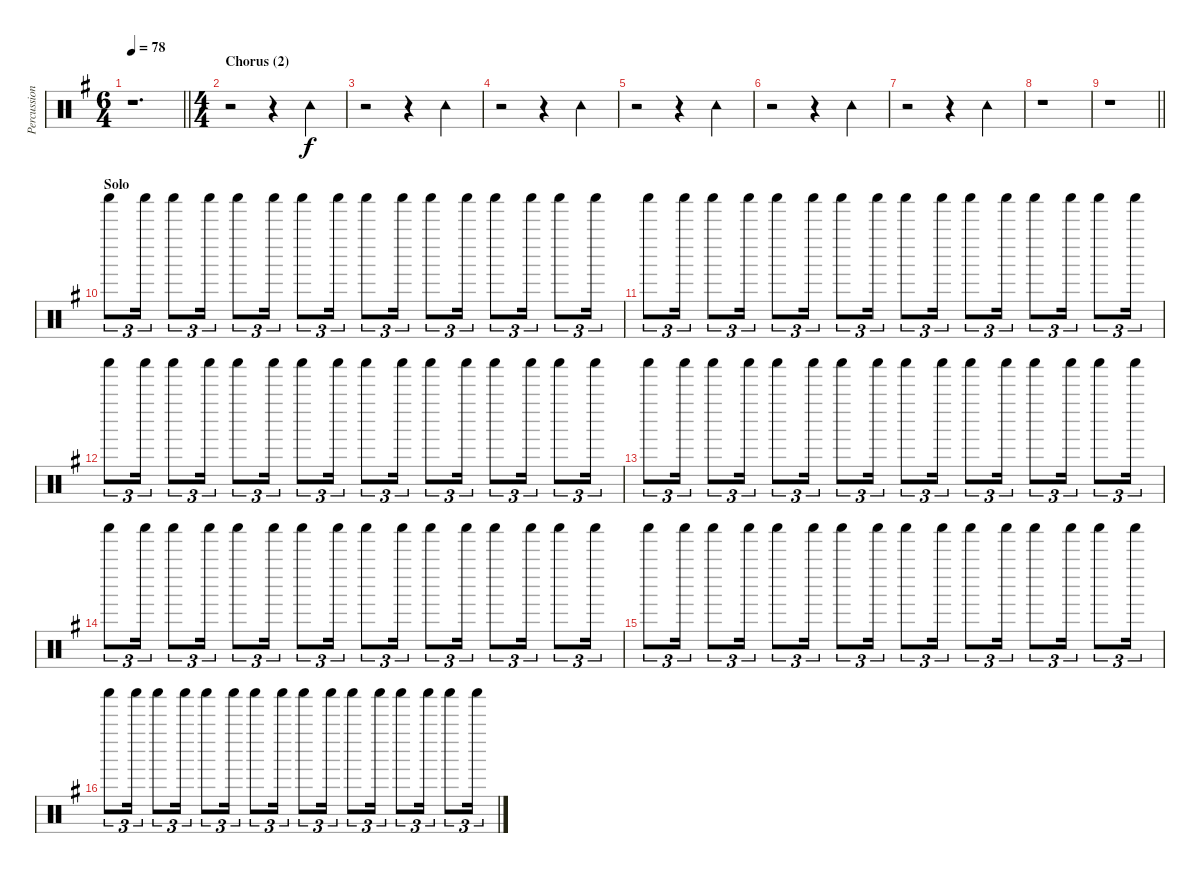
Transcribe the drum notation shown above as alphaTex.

\track ("Percussion" "Percussion") {instrument percussion}
\staff {score}
\articulation defaults
\ts (6 4)
\tempo 78
\clef neutral
\barLineRight lightlight
\ks g
r.1{d dy f} |
\ts (4 4)
\section ("" "Chorus (2)")
r.2 r.4 "Tambourine (hit)".4 |
r.2 r.4 "Tambourine (hit)".4 |
r.2 r.4 "Tambourine (hit)".4 |
r.2 r.4 "Tambourine (hit)".4 |
r.2 r.4 "Tambourine (hit)".4 |
r.2 r.4 "Tambourine (hit)".4 |
r.1 |
\barLineRight lightlight
r.1 |
\section ("" "Solo")
"Shaker (hit)".8{tu (3 2)} "Shaker (hit)".16{tu (3 2)} "Shaker (hit)".8{tu (3 2)} "Shaker (hit)".16{tu (3 2)} "Shaker (hit)".8{tu (3 2)} "Shaker (hit)".16{tu (3 2)} "Shaker (hit)".8{tu (3 2)} "Shaker (hit)".16{tu (3 2)} "Shaker (hit)".8{tu (3 2)} "Shaker (hit)".16{tu (3 2)} "Shaker (hit)".8{tu (3 2)} "Shaker (hit)".16{tu (3 2)} "Shaker (hit)".8{tu (3 2)} "Shaker (hit)".16{tu (3 2)} "Shaker (hit)".8{tu (3 2)} "Shaker (hit)".16{tu (3 2)} |
"Shaker (hit)".8{tu (3 2)} "Shaker (hit)".16{tu (3 2)} "Shaker (hit)".8{tu (3 2)} "Shaker (hit)".16{tu (3 2)} "Shaker (hit)".8{tu (3 2)} "Shaker (hit)".16{tu (3 2)} "Shaker (hit)".8{tu (3 2)} "Shaker (hit)".16{tu (3 2)} "Shaker (hit)".8{tu (3 2)} "Shaker (hit)".16{tu (3 2)} "Shaker (hit)".8{tu (3 2)} "Shaker (hit)".16{tu (3 2)} "Shaker (hit)".8{tu (3 2)} "Shaker (hit)".16{tu (3 2)} "Shaker (hit)".8{tu (3 2)} "Shaker (hit)".16{tu (3 2)} |
"Shaker (hit)".8{tu (3 2)} "Shaker (hit)".16{tu (3 2)} "Shaker (hit)".8{tu (3 2)} "Shaker (hit)".16{tu (3 2)} "Shaker (hit)".8{tu (3 2)} "Shaker (hit)".16{tu (3 2)} "Shaker (hit)".8{tu (3 2)} "Shaker (hit)".16{tu (3 2)} "Shaker (hit)".8{tu (3 2)} "Shaker (hit)".16{tu (3 2)} "Shaker (hit)".8{tu (3 2)} "Shaker (hit)".16{tu (3 2)} "Shaker (hit)".8{tu (3 2)} "Shaker (hit)".16{tu (3 2)} "Shaker (hit)".8{tu (3 2)} "Shaker (hit)".16{tu (3 2)} |
"Shaker (hit)".8{tu (3 2)} "Shaker (hit)".16{tu (3 2)} "Shaker (hit)".8{tu (3 2)} "Shaker (hit)".16{tu (3 2)} "Shaker (hit)".8{tu (3 2)} "Shaker (hit)".16{tu (3 2)} "Shaker (hit)".8{tu (3 2)} "Shaker (hit)".16{tu (3 2)} "Shaker (hit)".8{tu (3 2)} "Shaker (hit)".16{tu (3 2)} "Shaker (hit)".8{tu (3 2)} "Shaker (hit)".16{tu (3 2)} "Shaker (hit)".8{tu (3 2)} "Shaker (hit)".16{tu (3 2)} "Shaker (hit)".8{tu (3 2)} "Shaker (hit)".16{tu (3 2)} |
"Shaker (hit)".8{tu (3 2)} "Shaker (hit)".16{tu (3 2)} "Shaker (hit)".8{tu (3 2)} "Shaker (hit)".16{tu (3 2)} "Shaker (hit)".8{tu (3 2)} "Shaker (hit)".16{tu (3 2)} "Shaker (hit)".8{tu (3 2)} "Shaker (hit)".16{tu (3 2)} "Shaker (hit)".8{tu (3 2)} "Shaker (hit)".16{tu (3 2)} "Shaker (hit)".8{tu (3 2)} "Shaker (hit)".16{tu (3 2)} "Shaker (hit)".8{tu (3 2)} "Shaker (hit)".16{tu (3 2)} "Shaker (hit)".8{tu (3 2)} "Shaker (hit)".16{tu (3 2)} |
"Shaker (hit)".8{tu (3 2)} "Shaker (hit)".16{tu (3 2)} "Shaker (hit)".8{tu (3 2)} "Shaker (hit)".16{tu (3 2)} "Shaker (hit)".8{tu (3 2)} "Shaker (hit)".16{tu (3 2)} "Shaker (hit)".8{tu (3 2)} "Shaker (hit)".16{tu (3 2)} "Shaker (hit)".8{tu (3 2)} "Shaker (hit)".16{tu (3 2)} "Shaker (hit)".8{tu (3 2)} "Shaker (hit)".16{tu (3 2)} "Shaker (hit)".8{tu (3 2)} "Shaker (hit)".16{tu (3 2)} "Shaker (hit)".8{tu (3 2)} "Shaker (hit)".16{tu (3 2)} |
"Shaker (hit)".8{tu (3 2)} "Shaker (hit)".16{tu (3 2)} "Shaker (hit)".8{tu (3 2)} "Shaker (hit)".16{tu (3 2)} "Shaker (hit)".8{tu (3 2)} "Shaker (hit)".16{tu (3 2)} "Shaker (hit)".8{tu (3 2)} "Shaker (hit)".16{tu (3 2)} "Shaker (hit)".8{tu (3 2)} "Shaker (hit)".16{tu (3 2)} "Shaker (hit)".8{tu (3 2)} "Shaker (hit)".16{tu (3 2)} "Shaker (hit)".8{tu (3 2)} "Shaker (hit)".16{tu (3 2)} "Shaker (hit)".8{tu (3 2)} "Shaker (hit)".16{tu (3 2)}
